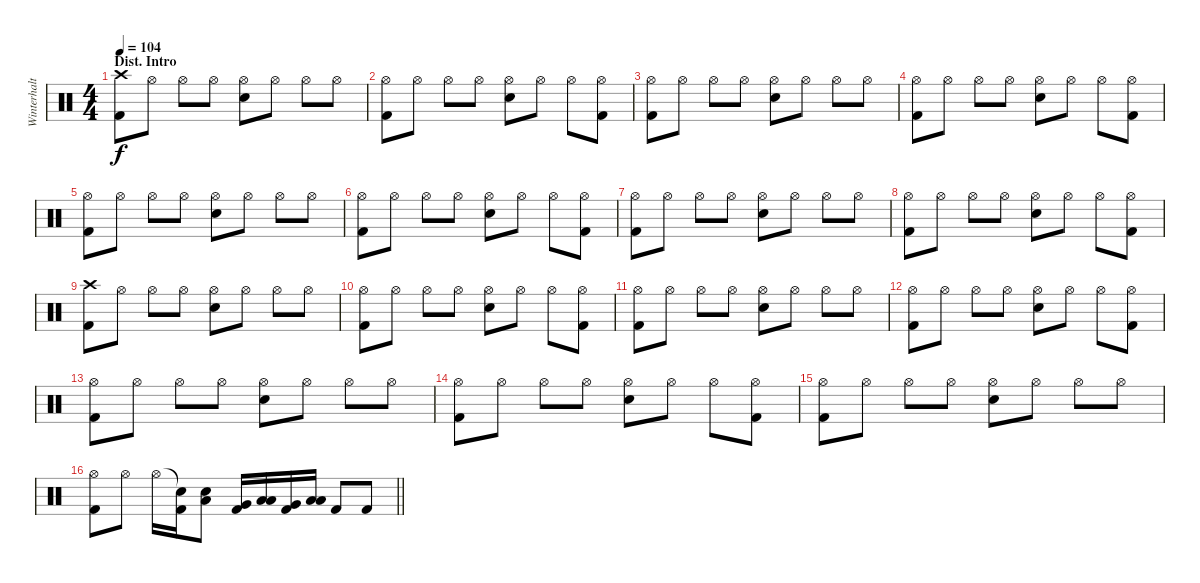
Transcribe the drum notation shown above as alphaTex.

\track ("Winterhalten" "Winterhalt") {instrument percussion}
\staff {score}
\articulation defaults
\ts (4 4)
\section ("" "Dist. Intro")
\tempo 104
\clef neutral
\ks c
("Kick (hit) 2" "Crash high (hit)").8{dy f} "Hi-Hat (open)".8 "Hi-Hat (open)".8 "Hi-Hat (open)".8 ("Hi-Hat (open)" "Snare (hit) 2").8 "Hi-Hat (open)".8 "Hi-Hat (open)".8 "Hi-Hat (open)".8 |
("Kick (hit) 2" "Hi-Hat (open)").8 "Hi-Hat (open)".8 "Hi-Hat (open)".8 "Hi-Hat (open)".8 ("Hi-Hat (open)" "Snare (hit) 2").8 "Hi-Hat (open)".8 "Hi-Hat (open)".8 ("Kick (hit) 2" "Hi-Hat (open)").8 |
("Kick (hit) 2" "Hi-Hat (open)").8 "Hi-Hat (open)".8 "Hi-Hat (open)".8 "Hi-Hat (open)".8 ("Hi-Hat (open)" "Snare (hit) 2").8 "Hi-Hat (open)".8 "Hi-Hat (open)".8 "Hi-Hat (open)".8 |
("Kick (hit) 2" "Hi-Hat (open)").8 "Hi-Hat (open)".8 "Hi-Hat (open)".8 "Hi-Hat (open)".8 ("Hi-Hat (open)" "Snare (hit) 2").8 "Hi-Hat (open)".8 "Hi-Hat (open)".8 ("Kick (hit) 2" "Hi-Hat (open)").8 |
("Kick (hit) 2" "Hi-Hat (open)").8 "Hi-Hat (open)".8 "Hi-Hat (open)".8 "Hi-Hat (open)".8 ("Hi-Hat (open)" "Snare (hit) 2").8 "Hi-Hat (open)".8 "Hi-Hat (open)".8 "Hi-Hat (open)".8 |
("Kick (hit) 2" "Hi-Hat (open)").8 "Hi-Hat (open)".8 "Hi-Hat (open)".8 "Hi-Hat (open)".8 ("Hi-Hat (open)" "Snare (hit) 2").8 "Hi-Hat (open)".8 "Hi-Hat (open)".8 ("Kick (hit) 2" "Hi-Hat (open)").8 |
("Kick (hit) 2" "Hi-Hat (open)").8 "Hi-Hat (open)".8 "Hi-Hat (open)".8 "Hi-Hat (open)".8 ("Hi-Hat (open)" "Snare (hit) 2").8 "Hi-Hat (open)".8 "Hi-Hat (open)".8 "Hi-Hat (open)".8 |
("Kick (hit) 2" "Hi-Hat (open)").8 "Hi-Hat (open)".8 "Hi-Hat (open)".8 "Hi-Hat (open)".8 ("Hi-Hat (open)" "Snare (hit) 2").8 "Hi-Hat (open)".8 "Hi-Hat (open)".8 ("Kick (hit) 2" "Hi-Hat (open)").8 |
("Kick (hit) 2" "Crash high (hit)").8 "Hi-Hat (open)".8 "Hi-Hat (open)".8 "Hi-Hat (open)".8 ("Hi-Hat (open)" "Snare (hit) 2").8 "Hi-Hat (open)".8 "Hi-Hat (open)".8 "Hi-Hat (open)".8 |
("Kick (hit) 2" "Hi-Hat (open)").8 "Hi-Hat (open)".8 "Hi-Hat (open)".8 "Hi-Hat (open)".8 ("Hi-Hat (open)" "Snare (hit) 2").8 "Hi-Hat (open)".8 "Hi-Hat (open)".8 ("Kick (hit) 2" "Hi-Hat (open)").8 |
("Kick (hit) 2" "Hi-Hat (open)").8 "Hi-Hat (open)".8 "Hi-Hat (open)".8 "Hi-Hat (open)".8 ("Hi-Hat (open)" "Snare (hit) 2").8 "Hi-Hat (open)".8 "Hi-Hat (open)".8 "Hi-Hat (open)".8 |
("Kick (hit) 2" "Hi-Hat (open)").8 "Hi-Hat (open)".8 "Hi-Hat (open)".8 "Hi-Hat (open)".8 ("Hi-Hat (open)" "Snare (hit) 2").8 "Hi-Hat (open)".8 "Hi-Hat (open)".8 ("Kick (hit) 2" "Hi-Hat (open)").8 |
("Kick (hit) 2" "Hi-Hat (open)").8 "Hi-Hat (open)".8 "Hi-Hat (open)".8 "Hi-Hat (open)".8 ("Hi-Hat (open)" "Snare (hit) 2").8 "Hi-Hat (open)".8 "Hi-Hat (open)".8 "Hi-Hat (open)".8 |
("Kick (hit) 2" "Hi-Hat (open)").8 "Hi-Hat (open)".8 "Hi-Hat (open)".8 "Hi-Hat (open)".8 ("Hi-Hat (open)" "Snare (hit) 2").8 "Hi-Hat (open)".8 "Hi-Hat (open)".8 ("Kick (hit) 2" "Hi-Hat (open)").8 |
("Kick (hit) 2" "Hi-Hat (open)").8 "Hi-Hat (open)".8 "Hi-Hat (open)".8 "Hi-Hat (open)".8 ("Hi-Hat (open)" "Snare (hit) 2").8 "Hi-Hat (open)".8 "Hi-Hat (open)".8 "Hi-Hat (open)".8 |
\barLineRight lightlight
("Hi-Hat (open)" "Kick (hit) 2").8 "Hi-Hat (open)".8 "Hi-Hat (open)".16 ("Snare (hit)"{t} "Kick (hit) 2").16 ("Snare (hit) 2" "Low Tom (hit)").8 ("Kick (hit) 2" "Very Low Tom (hit)").16 ("Low Tom (hit)" "Low Floor Tom (hit)").16 ("Very Low Tom (hit)" "Kick (hit) 2").16 ("Low Tom (hit)" "Low Floor Tom (hit)").16 "Kick (hit) 2".8 "Kick (hit) 2".8
